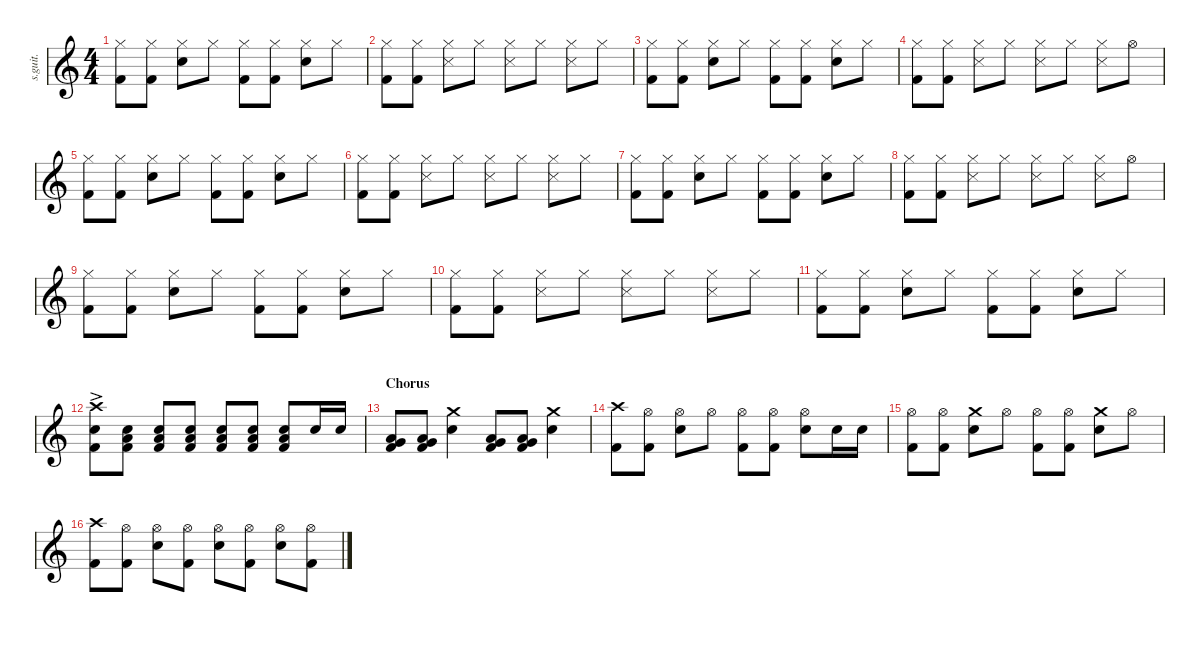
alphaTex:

\defaultSystemsLayout 4
\hideDynamics
\bracketExtendMode nobrackets
\track ("Dave Grohl - Drums" "s.guit.") {instrument percussion}
\staff {score}
\articulation defaults
\ts (4 4)
\tempo (100 hide)
\clef g2
\ks c
("Hi-Hat (closed)" "Kick (hit) 2").8{lyrics (0 "") lyrics (1 "") lyrics (2 "") lyrics (3 "") lyrics (4 "") dy mf} ("Hi-Hat (closed)" "Kick (hit) 2").8{lyrics (0 "") lyrics (1 "") lyrics (2 "") lyrics (3 "") lyrics (4 "")} ("Hi-Hat (closed)" "Snare (hit) 2").8{lyrics (0 "") lyrics (1 "") lyrics (2 "") lyrics (3 "") lyrics (4 "")} "Hi-Hat (closed)".8{lyrics (0 "") lyrics (1 "") lyrics (2 "") lyrics (3 "") lyrics (4 "")} ("Hi-Hat (closed)" "Kick (hit) 2").8{lyrics (0 "") lyrics (1 "") lyrics (2 "") lyrics (3 "") lyrics (4 "")} ("Hi-Hat (closed)" "Kick (hit) 2").8{lyrics (0 "") lyrics (1 "") lyrics (2 "") lyrics (3 "") lyrics (4 "")} ("Snare (hit) 2" "Hi-Hat (closed)").8{lyrics (0 "") lyrics (1 "") lyrics (2 "") lyrics (3 "") lyrics (4 "")} "Hi-Hat (closed)".8{lyrics (0 "") lyrics (1 "") lyrics (2 "") lyrics (3 "") lyrics (4 "")} |
("Hi-Hat (closed)" "Kick (hit) 2").8{lyrics (0 "") lyrics (1 "") lyrics (2 "") lyrics (3 "") lyrics (4 "")} ("Hi-Hat (closed)" "Kick (hit) 2").8{lyrics (0 "") lyrics (1 "") lyrics (2 "") lyrics (3 "") lyrics (4 "")} ("Hi-Hat (closed)" "Snare (side stick) 3").8{lyrics (0 "") lyrics (1 "") lyrics (2 "") lyrics (3 "") lyrics (4 "")} "Hi-Hat (closed)".8{lyrics (0 "") lyrics (1 "") lyrics (2 "") lyrics (3 "") lyrics (4 "")} ("Hi-Hat (closed)" "Snare (side stick) 3").8{lyrics (0 "") lyrics (1 "") lyrics (2 "") lyrics (3 "") lyrics (4 "")} "Hi-Hat (closed)".8{lyrics (0 "") lyrics (1 "") lyrics (2 "") lyrics (3 "") lyrics (4 "")} ("Hi-Hat (closed)" "Snare (side stick) 3").8{lyrics (0 "") lyrics (1 "") lyrics (2 "") lyrics (3 "") lyrics (4 "")} "Hi-Hat (closed)".8{lyrics (0 "") lyrics (1 "") lyrics (2 "") lyrics (3 "") lyrics (4 "")} |
("Hi-Hat (closed)" "Kick (hit) 2").8{lyrics (0 "") lyrics (1 "") lyrics (2 "") lyrics (3 "") lyrics (4 "")} ("Hi-Hat (closed)" "Kick (hit) 2").8{lyrics (0 "") lyrics (1 "") lyrics (2 "") lyrics (3 "") lyrics (4 "")} ("Hi-Hat (closed)" "Snare (hit) 2").8{lyrics (0 "") lyrics (1 "") lyrics (2 "") lyrics (3 "") lyrics (4 "")} "Hi-Hat (closed)".8{lyrics (0 "") lyrics (1 "") lyrics (2 "") lyrics (3 "") lyrics (4 "")} ("Hi-Hat (closed)" "Kick (hit) 2").8{lyrics (0 "") lyrics (1 "") lyrics (2 "") lyrics (3 "") lyrics (4 "")} ("Hi-Hat (closed)" "Kick (hit) 2").8{lyrics (0 "") lyrics (1 "") lyrics (2 "") lyrics (3 "") lyrics (4 "")} ("Snare (hit) 2" "Hi-Hat (closed)").8{lyrics (0 "") lyrics (1 "") lyrics (2 "") lyrics (3 "") lyrics (4 "")} "Hi-Hat (closed)".8{lyrics (0 "") lyrics (1 "") lyrics (2 "") lyrics (3 "") lyrics (4 "")} |
("Hi-Hat (closed)" "Kick (hit) 2").8{lyrics (0 "") lyrics (1 "") lyrics (2 "") lyrics (3 "") lyrics (4 "")} ("Hi-Hat (closed)" "Kick (hit) 2").8{lyrics (0 "") lyrics (1 "") lyrics (2 "") lyrics (3 "") lyrics (4 "")} ("Hi-Hat (closed)" "Snare (side stick) 3").8{lyrics (0 "") lyrics (1 "") lyrics (2 "") lyrics (3 "") lyrics (4 "")} "Hi-Hat (closed)".8{lyrics (0 "") lyrics (1 "") lyrics (2 "") lyrics (3 "") lyrics (4 "")} ("Hi-Hat (closed)" "Snare (side stick) 3").8{lyrics (0 "") lyrics (1 "") lyrics (2 "") lyrics (3 "") lyrics (4 "")} "Hi-Hat (closed)".8{lyrics (0 "") lyrics (1 "") lyrics (2 "") lyrics (3 "") lyrics (4 "")} ("Hi-Hat (closed)" "Snare (side stick) 3").8{lyrics (0 "") lyrics (1 "") lyrics (2 "") lyrics (3 "") lyrics (4 "")} "Hi-Hat (open)".8{lyrics (0 "") lyrics (1 "") lyrics (2 "") lyrics (3 "") lyrics (4 "")} |
("Hi-Hat (closed)" "Kick (hit) 2").8{lyrics (0 "") lyrics (1 "") lyrics (2 "") lyrics (3 "") lyrics (4 "")} ("Hi-Hat (closed)" "Kick (hit) 2").8{lyrics (0 "") lyrics (1 "") lyrics (2 "") lyrics (3 "") lyrics (4 "")} ("Hi-Hat (closed)" "Snare (hit) 2").8{lyrics (0 "") lyrics (1 "") lyrics (2 "") lyrics (3 "") lyrics (4 "")} "Hi-Hat (closed)".8{lyrics (0 "") lyrics (1 "") lyrics (2 "") lyrics (3 "") lyrics (4 "")} ("Hi-Hat (closed)" "Kick (hit) 2").8{lyrics (0 "") lyrics (1 "") lyrics (2 "") lyrics (3 "") lyrics (4 "")} ("Hi-Hat (closed)" "Kick (hit) 2").8{lyrics (0 "") lyrics (1 "") lyrics (2 "") lyrics (3 "") lyrics (4 "")} ("Snare (hit) 2" "Hi-Hat (closed)").8{lyrics (0 "") lyrics (1 "") lyrics (2 "") lyrics (3 "") lyrics (4 "")} "Hi-Hat (closed)".8{lyrics (0 "") lyrics (1 "") lyrics (2 "") lyrics (3 "") lyrics (4 "")} |
("Hi-Hat (closed)" "Kick (hit) 2").8{lyrics (0 "") lyrics (1 "") lyrics (2 "") lyrics (3 "") lyrics (4 "")} ("Hi-Hat (closed)" "Kick (hit) 2").8{lyrics (0 "") lyrics (1 "") lyrics (2 "") lyrics (3 "") lyrics (4 "")} ("Hi-Hat (closed)" "Snare (side stick) 3").8{lyrics (0 "") lyrics (1 "") lyrics (2 "") lyrics (3 "") lyrics (4 "")} "Hi-Hat (closed)".8{lyrics (0 "") lyrics (1 "") lyrics (2 "") lyrics (3 "") lyrics (4 "")} ("Hi-Hat (closed)" "Snare (side stick) 3").8{lyrics (0 "") lyrics (1 "") lyrics (2 "") lyrics (3 "") lyrics (4 "")} "Hi-Hat (closed)".8{lyrics (0 "") lyrics (1 "") lyrics (2 "") lyrics (3 "") lyrics (4 "")} ("Hi-Hat (closed)" "Snare (side stick) 3").8{lyrics (0 "") lyrics (1 "") lyrics (2 "") lyrics (3 "") lyrics (4 "")} "Hi-Hat (closed)".8{lyrics (0 "") lyrics (1 "") lyrics (2 "") lyrics (3 "") lyrics (4 "")} |
("Hi-Hat (closed)" "Kick (hit) 2").8{lyrics (0 "") lyrics (1 "") lyrics (2 "") lyrics (3 "") lyrics (4 "")} ("Hi-Hat (closed)" "Kick (hit) 2").8{lyrics (0 "") lyrics (1 "") lyrics (2 "") lyrics (3 "") lyrics (4 "")} ("Hi-Hat (closed)" "Snare (hit) 2").8{lyrics (0 "") lyrics (1 "") lyrics (2 "") lyrics (3 "") lyrics (4 "")} "Hi-Hat (closed)".8{lyrics (0 "") lyrics (1 "") lyrics (2 "") lyrics (3 "") lyrics (4 "")} ("Hi-Hat (closed)" "Kick (hit) 2").8{lyrics (0 "") lyrics (1 "") lyrics (2 "") lyrics (3 "") lyrics (4 "")} ("Hi-Hat (closed)" "Kick (hit) 2").8{lyrics (0 "") lyrics (1 "") lyrics (2 "") lyrics (3 "") lyrics (4 "")} ("Snare (hit) 2" "Hi-Hat (closed)").8{lyrics (0 "") lyrics (1 "") lyrics (2 "") lyrics (3 "") lyrics (4 "")} "Hi-Hat (closed)".8{lyrics (0 "") lyrics (1 "") lyrics (2 "") lyrics (3 "") lyrics (4 "")} |
("Hi-Hat (closed)" "Kick (hit) 2").8{lyrics (0 "") lyrics (1 "") lyrics (2 "") lyrics (3 "") lyrics (4 "")} ("Hi-Hat (closed)" "Kick (hit) 2").8{lyrics (0 "") lyrics (1 "") lyrics (2 "") lyrics (3 "") lyrics (4 "")} ("Hi-Hat (closed)" "Snare (side stick) 3").8{lyrics (0 "") lyrics (1 "") lyrics (2 "") lyrics (3 "") lyrics (4 "")} "Hi-Hat (closed)".8{lyrics (0 "") lyrics (1 "") lyrics (2 "") lyrics (3 "") lyrics (4 "")} ("Hi-Hat (closed)" "Snare (side stick) 3").8{lyrics (0 "") lyrics (1 "") lyrics (2 "") lyrics (3 "") lyrics (4 "")} "Hi-Hat (closed)".8{lyrics (0 "") lyrics (1 "") lyrics (2 "") lyrics (3 "") lyrics (4 "")} ("Hi-Hat (closed)" "Snare (side stick) 3").8{lyrics (0 "") lyrics (1 "") lyrics (2 "") lyrics (3 "") lyrics (4 "")} "Hi-Hat (open)".8{lyrics (0 "") lyrics (1 "") lyrics (2 "") lyrics (3 "") lyrics (4 "")} |
("Hi-Hat (closed)" "Kick (hit) 2").8{lyrics (0 "") lyrics (1 "") lyrics (2 "") lyrics (3 "") lyrics (4 "")} ("Hi-Hat (closed)" "Kick (hit) 2").8{lyrics (0 "") lyrics (1 "") lyrics (2 "") lyrics (3 "") lyrics (4 "")} ("Hi-Hat (closed)" "Snare (hit) 2").8{lyrics (0 "") lyrics (1 "") lyrics (2 "") lyrics (3 "") lyrics (4 "")} "Hi-Hat (closed)".8{lyrics (0 "") lyrics (1 "") lyrics (2 "") lyrics (3 "") lyrics (4 "")} ("Hi-Hat (closed)" "Kick (hit) 2").8{lyrics (0 "") lyrics (1 "") lyrics (2 "") lyrics (3 "") lyrics (4 "")} ("Hi-Hat (closed)" "Kick (hit) 2").8{lyrics (0 "") lyrics (1 "") lyrics (2 "") lyrics (3 "") lyrics (4 "")} ("Snare (hit) 2" "Hi-Hat (closed)").8{lyrics (0 "") lyrics (1 "") lyrics (2 "") lyrics (3 "") lyrics (4 "")} "Hi-Hat (closed)".8{lyrics (0 "") lyrics (1 "") lyrics (2 "") lyrics (3 "") lyrics (4 "")} |
("Hi-Hat (closed)" "Kick (hit) 2").8{lyrics (0 "") lyrics (1 "") lyrics (2 "") lyrics (3 "") lyrics (4 "")} ("Hi-Hat (closed)" "Kick (hit) 2").8{lyrics (0 "") lyrics (1 "") lyrics (2 "") lyrics (3 "") lyrics (4 "")} ("Hi-Hat (closed)" "Snare (side stick) 3").8{lyrics (0 "") lyrics (1 "") lyrics (2 "") lyrics (3 "") lyrics (4 "")} "Hi-Hat (closed)".8{lyrics (0 "") lyrics (1 "") lyrics (2 "") lyrics (3 "") lyrics (4 "")} ("Hi-Hat (closed)" "Snare (side stick) 3").8{lyrics (0 "") lyrics (1 "") lyrics (2 "") lyrics (3 "") lyrics (4 "")} "Hi-Hat (closed)".8{lyrics (0 "") lyrics (1 "") lyrics (2 "") lyrics (3 "") lyrics (4 "")} ("Hi-Hat (closed)" "Snare (side stick) 3").8{lyrics (0 "") lyrics (1 "") lyrics (2 "") lyrics (3 "") lyrics (4 "")} "Hi-Hat (closed)".8{lyrics (0 "") lyrics (1 "") lyrics (2 "") lyrics (3 "") lyrics (4 "")} |
("Hi-Hat (closed)" "Kick (hit) 2").8{lyrics (0 "") lyrics (1 "") lyrics (2 "") lyrics (3 "") lyrics (4 "")} ("Hi-Hat (closed)" "Kick (hit) 2").8{lyrics (0 "") lyrics (1 "") lyrics (2 "") lyrics (3 "") lyrics (4 "")} ("Hi-Hat (closed)" "Snare (hit) 2").8{lyrics (0 "") lyrics (1 "") lyrics (2 "") lyrics (3 "") lyrics (4 "")} "Hi-Hat (closed)".8{lyrics (0 "") lyrics (1 "") lyrics (2 "") lyrics (3 "") lyrics (4 "")} ("Hi-Hat (closed)" "Kick (hit) 2").8{lyrics (0 "") lyrics (1 "") lyrics (2 "") lyrics (3 "") lyrics (4 "")} ("Hi-Hat (closed)" "Kick (hit) 2").8{lyrics (0 "") lyrics (1 "") lyrics (2 "") lyrics (3 "") lyrics (4 "")} ("Snare (hit) 2" "Hi-Hat (closed)").8{lyrics (0 "") lyrics (1 "") lyrics (2 "") lyrics (3 "") lyrics (4 "")} "Hi-Hat (closed)".8{lyrics (0 "") lyrics (1 "") lyrics (2 "") lyrics (3 "") lyrics (4 "")} |
("Crash high (hit)"{ac} "Snare (hit) 2" "Kick (hit) 2").8{lyrics (0 "") lyrics (1 "") lyrics (2 "") lyrics (3 "") lyrics (4 "")} ("Snare (hit) 2" "Low Tom (hit)" "Kick (hit) 2").8{lyrics (0 "") lyrics (1 "") lyrics (2 "") lyrics (3 "") lyrics (4 "") dy pp} ("Snare (hit) 2" "Low Tom (hit)" "Kick (hit) 2").8{lyrics (0 "") lyrics (1 "") lyrics (2 "") lyrics (3 "") lyrics (4 "") dy p} ("Snare (hit) 2" "Low Tom (hit)" "Kick (hit) 2").8{lyrics (0 "") lyrics (1 "") lyrics (2 "") lyrics (3 "") lyrics (4 "")} ("Snare (hit) 2" "Low Tom (hit)" "Kick (hit) 2").8{lyrics (0 "") lyrics (1 "") lyrics (2 "") lyrics (3 "") lyrics (4 "") dy mp} ("Snare (hit) 2" "Low Tom (hit)" "Kick (hit) 2").8{lyrics (0 "") lyrics (1 "") lyrics (2 "") lyrics (3 "") lyrics (4 "") dy mf} ("Snare (hit) 2" "Low Tom (hit)" "Kick (hit) 2").8{lyrics (0 "") lyrics (1 "") lyrics (2 "") lyrics (3 "") lyrics (4 "") dy f} "Snare (hit) 2".16{lyrics (0 "") lyrics (1 "") lyrics (2 "") lyrics (3 "") lyrics (4 "") dy ff} "Snare (hit) 2".16{lyrics (0 "") lyrics (1 "") lyrics (2 "") lyrics (3 "") lyrics (4 "")} |
\section ("" "Chorus")
("Low Tom (hit)" "Kick (hit) 2" "Very Low Tom (hit)").8{lyrics (0 "") lyrics (1 "") lyrics (2 "") lyrics (3 "") lyrics (4 "")} ("Low Tom (hit)" "Kick (hit) 2" "Very Low Tom (hit)").8{lyrics (0 "") lyrics (1 "") lyrics (2 "") lyrics (3 "") lyrics (4 "")} ("Snare (hit) 2" "Crash medium (hit)").4{lyrics (0 "") lyrics (1 "") lyrics (2 "") lyrics (3 "") lyrics (4 "")} ("Low Tom (hit)" "Kick (hit) 2" "Very Low Tom (hit)").8{lyrics (0 "") lyrics (1 "") lyrics (2 "") lyrics (3 "") lyrics (4 "")} ("Low Tom (hit)" "Kick (hit) 2" "Very Low Tom (hit)").8{lyrics (0 "") lyrics (1 "") lyrics (2 "") lyrics (3 "") lyrics (4 "")} ("Snare (hit) 2" "Crash medium (hit)").4{lyrics (0 "") lyrics (1 "") lyrics (2 "") lyrics (3 "") lyrics (4 "")} |
("Kick (hit) 2" "Crash high (hit)").8{lyrics (0 "") lyrics (1 "") lyrics (2 "") lyrics (3 "") lyrics (4 "")} ("Hi-Hat (open)" "Kick (hit) 2").8{lyrics (0 "") lyrics (1 "") lyrics (2 "") lyrics (3 "") lyrics (4 "")} ("Snare (hit) 2" "Hi-Hat (open)").8{lyrics (0 "") lyrics (1 "") lyrics (2 "") lyrics (3 "") lyrics (4 "")} "Hi-Hat (open)".8{lyrics (0 "") lyrics (1 "") lyrics (2 "") lyrics (3 "") lyrics (4 "")} ("Hi-Hat (open)" "Kick (hit) 2").8{lyrics (0 "") lyrics (1 "") lyrics (2 "") lyrics (3 "") lyrics (4 "")} ("Hi-Hat (open)" "Kick (hit) 2").8{lyrics (0 "") lyrics (1 "") lyrics (2 "") lyrics (3 "") lyrics (4 "") dy f} ("Snare (hit) 2" "Hi-Hat (open)").8{lyrics (0 "") lyrics (1 "") lyrics (2 "") lyrics (3 "") lyrics (4 "") dy ff} "Snare (hit) 2".16{lyrics (0 "") lyrics (1 "") lyrics (2 "") lyrics (3 "") lyrics (4 "")} "Snare (hit) 2".16{lyrics (0 "") lyrics (1 "") lyrics (2 "") lyrics (3 "") lyrics (4 "")} |
("Kick (hit) 2" "Hi-Hat (open)").8{lyrics (0 "") lyrics (1 "") lyrics (2 "") lyrics (3 "") lyrics (4 "")} ("Kick (hit) 2" "Hi-Hat (open)").8{lyrics (0 "") lyrics (1 "") lyrics (2 "") lyrics (3 "") lyrics (4 "")} ("Snare (hit) 2" "Crash medium (hit)").8{lyrics (0 "") lyrics (1 "") lyrics (2 "") lyrics (3 "") lyrics (4 "")} "Hi-Hat (open)".8{lyrics (0 "") lyrics (1 "") lyrics (2 "") lyrics (3 "") lyrics (4 "")} ("Kick (hit) 2" "Hi-Hat (open)").8{lyrics (0 "") lyrics (1 "") lyrics (2 "") lyrics (3 "") lyrics (4 "")} ("Kick (hit) 2" "Hi-Hat (open)").8{lyrics (0 "") lyrics (1 "") lyrics (2 "") lyrics (3 "") lyrics (4 "")} ("Snare (hit) 2" "Crash medium (hit)").8{lyrics (0 "") lyrics (1 "") lyrics (2 "") lyrics (3 "") lyrics (4 "")} "Hi-Hat (open)".8{lyrics (0 "") lyrics (1 "") lyrics (2 "") lyrics (3 "") lyrics (4 "")} |
("Kick (hit) 2" "Crash high (hit)").8{lyrics (0 "") lyrics (1 "") lyrics (2 "") lyrics (3 "") lyrics (4 "")} ("Hi-Hat (open)" "Kick (hit) 2").8{lyrics (0 "") lyrics (1 "") lyrics (2 "") lyrics (3 "") lyrics (4 "")} ("Snare (hit) 2" "Hi-Hat (open)").8{lyrics (0 "") lyrics (1 "") lyrics (2 "") lyrics (3 "") lyrics (4 "")} ("Hi-Hat (open)" "Kick (hit) 2").8{lyrics (0 "") lyrics (1 "") lyrics (2 "") lyrics (3 "") lyrics (4 "")} ("Snare (hit) 2" "Hi-Hat (open)").8{lyrics (0 "") lyrics (1 "") lyrics (2 "") lyrics (3 "") lyrics (4 "")} ("Hi-Hat (open)" "Kick (hit) 2").8{lyrics (0 "") lyrics (1 "") lyrics (2 "") lyrics (3 "") lyrics (4 "")} ("Snare (hit) 2" "Hi-Hat (open)").8{lyrics (0 "") lyrics (1 "") lyrics (2 "") lyrics (3 "") lyrics (4 "")} ("Hi-Hat (open)" "Kick (hit) 2").8{lyrics (0 "") lyrics (1 "") lyrics (2 "") lyrics (3 "") lyrics (4 "")}
